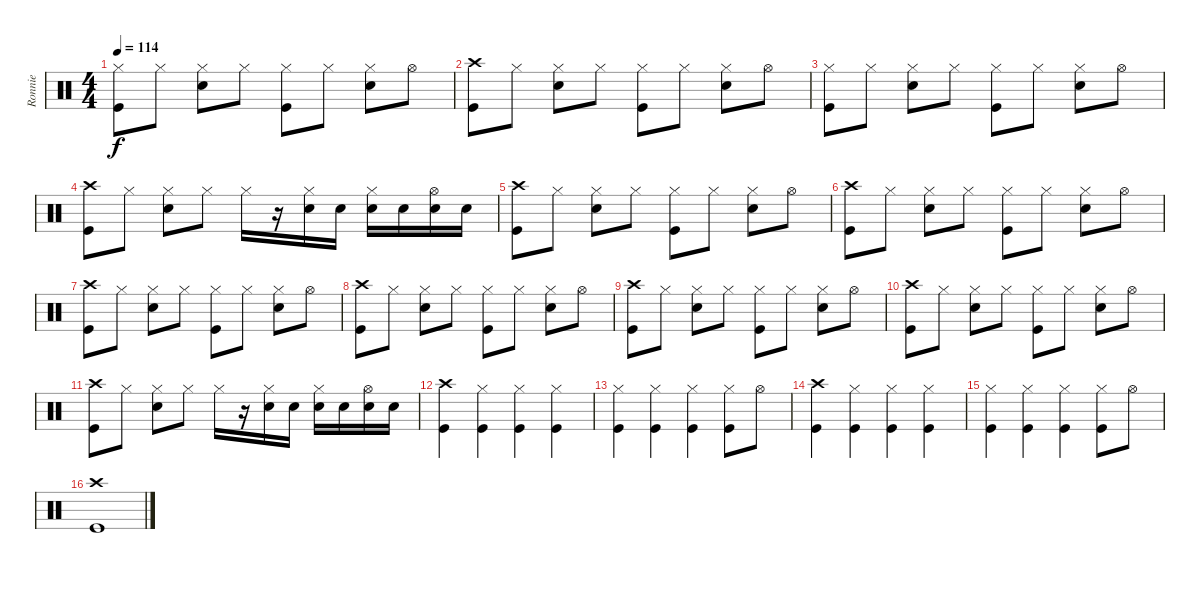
\track ("Ronnie" "Ronnie") {instrument percussion}
\staff {score}
\articulation defaults
\ts (4 4)
\tempo 114
\clef neutral
\ks c
("Hi-Hat (closed)" "Kick (hit)").8{dy f} "Hi-Hat (closed)".8 ("Hi-Hat (closed)" "Electric Snare (hit)").8 "Hi-Hat (closed)".8 ("Hi-Hat (closed)" "Kick (hit)").8 "Hi-Hat (closed)".8 ("Hi-Hat (closed)" "Electric Snare (hit)").8 "Hi-Hat (open)".8 |
("Crash high (hit)" "Kick (hit)").8 "Hi-Hat (closed)".8 ("Hi-Hat (closed)" "Electric Snare (hit)").8 "Hi-Hat (closed)".8 ("Hi-Hat (closed)" "Kick (hit)").8 "Hi-Hat (closed)".8 ("Hi-Hat (closed)" "Electric Snare (hit)").8 "Hi-Hat (open)".8 |
("Hi-Hat (closed)" "Kick (hit)").8 "Hi-Hat (closed)".8 ("Hi-Hat (closed)" "Electric Snare (hit)").8 "Hi-Hat (closed)".8 ("Hi-Hat (closed)" "Kick (hit)").8 "Hi-Hat (closed)".8 ("Hi-Hat (closed)" "Electric Snare (hit)").8 "Hi-Hat (open)".8 |
("Crash high (hit)" "Kick (hit)").8 "Hi-Hat (closed)".8 ("Hi-Hat (closed)" "Electric Snare (hit)").8 "Hi-Hat (closed)".8 "Hi-Hat (closed)".16 r.16 ("Hi-Hat (closed)" "Electric Snare (hit)").16 "Electric Snare (hit)".16 ("Hi-Hat (closed)" "Electric Snare (hit)").16 "Electric Snare (hit)".16 ("Hi-Hat (open)" "Electric Snare (hit)").16 "Electric Snare (hit)".16 |
("Crash high (hit)" "Kick (hit)").8 "Hi-Hat (closed)".8 ("Hi-Hat (closed)" "Electric Snare (hit)").8 "Hi-Hat (closed)".8 ("Hi-Hat (closed)" "Kick (hit)").8 "Hi-Hat (closed)".8 ("Hi-Hat (closed)" "Electric Snare (hit)").8 "Hi-Hat (open)".8 |
("Crash high (hit)" "Kick (hit)").8 "Hi-Hat (closed)".8 ("Hi-Hat (closed)" "Electric Snare (hit)").8 "Hi-Hat (closed)".8 ("Hi-Hat (closed)" "Kick (hit)").8 "Hi-Hat (closed)".8 ("Hi-Hat (closed)" "Electric Snare (hit)").8 "Hi-Hat (open)".8 |
("Crash high (hit)" "Kick (hit)").8 "Hi-Hat (closed)".8 ("Hi-Hat (closed)" "Electric Snare (hit)").8 "Hi-Hat (closed)".8 ("Hi-Hat (closed)" "Kick (hit)").8 "Hi-Hat (closed)".8 ("Hi-Hat (closed)" "Electric Snare (hit)").8 "Hi-Hat (open)".8 |
("Crash high (hit)" "Kick (hit)").8 "Hi-Hat (closed)".8 ("Hi-Hat (closed)" "Electric Snare (hit)").8 "Hi-Hat (closed)".8 ("Hi-Hat (closed)" "Kick (hit)").8 "Hi-Hat (closed)".8 ("Hi-Hat (closed)" "Electric Snare (hit)").8 "Hi-Hat (open)".8 |
("Crash high (hit)" "Kick (hit)").8 "Hi-Hat (closed)".8 ("Hi-Hat (closed)" "Electric Snare (hit)").8 "Hi-Hat (closed)".8 ("Hi-Hat (closed)" "Kick (hit)").8 "Hi-Hat (closed)".8 ("Hi-Hat (closed)" "Electric Snare (hit)").8 "Hi-Hat (open)".8 |
("Crash high (hit)" "Kick (hit)").8 "Hi-Hat (closed)".8 ("Hi-Hat (closed)" "Electric Snare (hit)").8 "Hi-Hat (closed)".8 ("Hi-Hat (closed)" "Kick (hit)").8 "Hi-Hat (closed)".8 ("Hi-Hat (closed)" "Electric Snare (hit)").8 "Hi-Hat (open)".8 |
("Crash high (hit)" "Kick (hit)").8 "Hi-Hat (closed)".8 ("Hi-Hat (closed)" "Electric Snare (hit)").8 "Hi-Hat (closed)".8 "Hi-Hat (closed)".16 r.16 ("Hi-Hat (closed)" "Electric Snare (hit)").16 "Electric Snare (hit)".16 ("Hi-Hat (closed)" "Electric Snare (hit)").16 "Electric Snare (hit)".16 ("Hi-Hat (open)" "Electric Snare (hit)").16 "Electric Snare (hit)".16 |
("Kick (hit)" "Crash high (hit)").4 ("Hi-Hat (closed)" "Kick (hit)").4 ("Hi-Hat (closed)" "Kick (hit)").4 ("Hi-Hat (closed)" "Kick (hit)").4 |
("Hi-Hat (closed)" "Kick (hit)").4 ("Hi-Hat (closed)" "Kick (hit)").4 ("Hi-Hat (closed)" "Kick (hit)").4 ("Hi-Hat (closed)" "Kick (hit)").8 "Hi-Hat (open)".8 |
("Kick (hit)" "Crash high (hit)").4 ("Hi-Hat (closed)" "Kick (hit)").4 ("Hi-Hat (closed)" "Kick (hit)").4 ("Hi-Hat (closed)" "Kick (hit)").4 |
("Hi-Hat (closed)" "Kick (hit)").4 ("Hi-Hat (closed)" "Kick (hit)").4 ("Hi-Hat (closed)" "Kick (hit)").4 ("Hi-Hat (closed)" "Kick (hit)").8 "Hi-Hat (open)".8 |
("Crash high (hit)" "Kick (hit)").1
